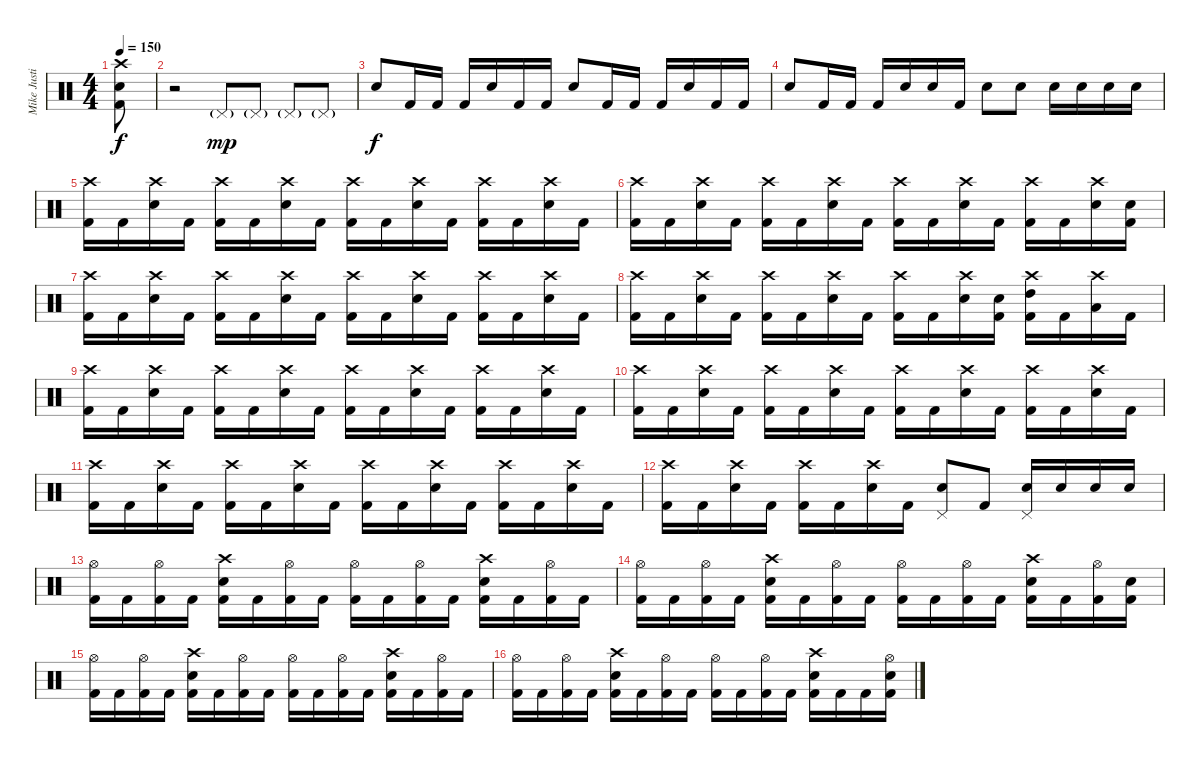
\track ("Mike Justian" "Mike Justi") {instrument percussion}
\staff {score}
\articulation defaults
\ts (4 4)
\tempo 150
\clef neutral
\ks c
("Crash high (hit)" "Electric Snare (hit)" "Kick (hit) 2").8{dy f} |
r.2 "Pedal Hi-Hat (hit)"{g}.8{dy mp} "Pedal Hi-Hat (hit)"{g}.8 "Pedal Hi-Hat (hit)"{g}.8 "Pedal Hi-Hat (hit)"{g}.8 |
"Electric Snare (hit)".8{dy f} "Kick (hit) 2".16 "Kick (hit) 2".16 "Kick (hit) 2".16 "Electric Snare (hit)".16 "Kick (hit) 2".16 "Kick (hit) 2".16 "Electric Snare (hit)".8 "Kick (hit) 2".16 "Kick (hit) 2".16 "Kick (hit) 2".16 "Electric Snare (hit)".16 "Kick (hit) 2".16 "Kick (hit) 2".16 |
"Electric Snare (hit)".8 "Kick (hit) 2".16 "Kick (hit) 2".16 "Kick (hit) 2".16 "Electric Snare (hit)".16 "Electric Snare (hit)".16 "Kick (hit) 2".16 "Electric Snare (hit)".8 "Electric Snare (hit)".8 "Electric Snare (hit)".16 "Electric Snare (hit)".16 "Electric Snare (hit)".16 "Electric Snare (hit)".16 |
("Crash high (hit)" "Kick (hit) 2").16 "Kick (hit) 2".16 ("Crash high (hit)" "Electric Snare (hit)").16 "Kick (hit) 2".16 ("Crash high (hit)" "Kick (hit) 2").16 "Kick (hit) 2".16 ("Crash high (hit)" "Electric Snare (hit)").16 "Kick (hit) 2".16 ("Crash high (hit)" "Kick (hit) 2").16 "Kick (hit) 2".16 ("Crash high (hit)" "Electric Snare (hit)").16 "Kick (hit) 2".16 ("Crash high (hit)" "Kick (hit) 2").16 "Kick (hit) 2".16 ("Crash high (hit)" "Electric Snare (hit)").16 "Kick (hit) 2".16 |
("Crash high (hit)" "Kick (hit) 2").16 "Kick (hit) 2".16 ("Crash high (hit)" "Electric Snare (hit)").16 "Kick (hit) 2".16 ("Crash high (hit)" "Kick (hit) 2").16 "Kick (hit) 2".16 ("Crash high (hit)" "Electric Snare (hit)").16 "Kick (hit) 2".16 ("Crash high (hit)" "Kick (hit) 2").16 "Kick (hit) 2".16 ("Crash high (hit)" "Electric Snare (hit)").16 "Kick (hit) 2".16 ("Crash high (hit)" "Kick (hit) 2").16 "Kick (hit) 2".16 ("Crash high (hit)" "Electric Snare (hit)").16 ("Electric Snare (hit)" "Kick (hit) 2").16 |
("Crash high (hit)" "Kick (hit) 2").16 "Kick (hit) 2".16 ("Crash high (hit)" "Electric Snare (hit)").16 "Kick (hit) 2".16 ("Crash high (hit)" "Kick (hit) 2").16 "Kick (hit) 2".16 ("Crash high (hit)" "Electric Snare (hit)").16 "Kick (hit) 2".16 ("Crash high (hit)" "Kick (hit) 2").16 "Kick (hit) 2".16 ("Crash high (hit)" "Electric Snare (hit)").16 "Kick (hit) 2".16 ("Crash high (hit)" "Kick (hit) 2").16 "Kick (hit) 2".16 ("Crash high (hit)" "Electric Snare (hit)").16 "Kick (hit) 2".16 |
("Crash high (hit)" "Kick (hit) 2").16 "Kick (hit) 2".16 ("Crash high (hit)" "Electric Snare (hit)").16 "Kick (hit) 2".16 ("Crash high (hit)" "Kick (hit) 2").16 "Kick (hit) 2".16 ("Crash high (hit)" "Electric Snare (hit)").16 "Kick (hit) 2".16 ("Crash high (hit)" "Kick (hit) 2").16 "Kick (hit) 2".16 ("Crash high (hit)" "Electric Snare (hit)").16 ("Electric Snare (hit)" "Kick (hit) 2").16 ("Crash high (hit)" "High Tom (hit)" "Kick (hit) 2").16 "Kick (hit) 2".16 ("Crash high (hit)" "Low Tom (hit)").16 "Kick (hit) 2".16 |
("Crash high (hit)" "Kick (hit) 2").16 "Kick (hit) 2".16 ("Crash high (hit)" "Electric Snare (hit)").16 "Kick (hit) 2".16 ("Crash high (hit)" "Kick (hit) 2").16 "Kick (hit) 2".16 ("Crash high (hit)" "Electric Snare (hit)").16 "Kick (hit) 2".16 ("Crash high (hit)" "Kick (hit) 2").16 "Kick (hit) 2".16 ("Crash high (hit)" "Electric Snare (hit)").16 "Kick (hit) 2".16 ("Crash high (hit)" "Kick (hit) 2").16 "Kick (hit) 2".16 ("Crash high (hit)" "Electric Snare (hit)").16 "Kick (hit) 2".16 |
("Crash high (hit)" "Kick (hit) 2").16 "Kick (hit) 2".16 ("Crash high (hit)" "Electric Snare (hit)").16 "Kick (hit) 2".16 ("Crash high (hit)" "Kick (hit) 2").16 "Kick (hit) 2".16 ("Crash high (hit)" "Electric Snare (hit)").16 "Kick (hit) 2".16 ("Crash high (hit)" "Kick (hit) 2").16 "Kick (hit) 2".16 ("Crash high (hit)" "Electric Snare (hit)").16 "Kick (hit) 2".16 ("Crash high (hit)" "Kick (hit) 2").16 "Kick (hit) 2".16 ("Crash high (hit)" "Electric Snare (hit)").16 "Kick (hit) 2".16 |
("Crash high (hit)" "Kick (hit) 2").16 "Kick (hit) 2".16 ("Crash high (hit)" "Electric Snare (hit)").16 "Kick (hit) 2".16 ("Crash high (hit)" "Kick (hit) 2").16 "Kick (hit) 2".16 ("Crash high (hit)" "Electric Snare (hit)").16 "Kick (hit) 2".16 ("Crash high (hit)" "Kick (hit) 2").16 "Kick (hit) 2".16 ("Crash high (hit)" "Electric Snare (hit)").16 "Kick (hit) 2".16 ("Crash high (hit)" "Kick (hit) 2").16 "Kick (hit) 2".16 ("Crash high (hit)" "Electric Snare (hit)").16 "Kick (hit) 2".16 |
("Crash high (hit)" "Kick (hit) 2").16 "Kick (hit) 2".16 ("Crash high (hit)" "Electric Snare (hit)").16 "Kick (hit) 2".16 ("Crash high (hit)" "Kick (hit) 2").16 "Kick (hit) 2".16 ("Crash high (hit)" "Electric Snare (hit)").16 "Kick (hit) 2".16 ("Pedal Hi-Hat (hit)" "Electric Snare (hit)").8 "Kick (hit) 2".8 ("Pedal Hi-Hat (hit)" "Electric Snare (hit)").16 "Electric Snare (hit)".16 "Electric Snare (hit)".16 "Electric Snare (hit)".16 |
("Hi-Hat (open)" "Kick (hit) 2").16 "Kick (hit) 2".16 ("Hi-Hat (open)" "Kick (hit) 2").16 "Kick (hit) 2".16 ("Crash high (hit)" "Electric Snare (hit)" "Kick (hit) 2").16 "Kick (hit) 2".16 ("Hi-Hat (open)" "Kick (hit) 2").16 "Kick (hit) 2".16 ("Hi-Hat (open)" "Kick (hit) 2").16 "Kick (hit) 2".16 ("Hi-Hat (open)" "Kick (hit) 2").16 "Kick (hit) 2".16 ("Crash high (hit)" "Electric Snare (hit)" "Kick (hit) 2").16 "Kick (hit) 2".16 ("Hi-Hat (open)" "Kick (hit) 2").16 "Kick (hit) 2".16 |
("Hi-Hat (open)" "Kick (hit) 2").16 "Kick (hit) 2".16 ("Hi-Hat (open)" "Kick (hit) 2").16 "Kick (hit) 2".16 ("Crash high (hit)" "Electric Snare (hit)" "Kick (hit) 2").16 "Kick (hit) 2".16 ("Hi-Hat (open)" "Kick (hit) 2").16 "Kick (hit) 2".16 ("Hi-Hat (open)" "Kick (hit) 2").16 "Kick (hit) 2".16 ("Hi-Hat (open)" "Kick (hit) 2").16 "Kick (hit) 2".16 ("Crash high (hit)" "Electric Snare (hit)" "Kick (hit) 2").16 "Kick (hit) 2".16 ("Hi-Hat (open)" "Kick (hit) 2").16 ("Electric Snare (hit)" "Kick (hit) 2").16 |
("Hi-Hat (open)" "Kick (hit) 2").16 "Kick (hit) 2".16 ("Hi-Hat (open)" "Kick (hit) 2").16 "Kick (hit) 2".16 ("Crash high (hit)" "Electric Snare (hit)" "Kick (hit) 2").16 "Kick (hit) 2".16 ("Hi-Hat (open)" "Kick (hit) 2").16 "Kick (hit) 2".16 ("Hi-Hat (open)" "Kick (hit) 2").16 "Kick (hit) 2".16 ("Hi-Hat (open)" "Kick (hit) 2").16 "Kick (hit) 2".16 ("Crash high (hit)" "Electric Snare (hit)" "Kick (hit) 2").16 "Kick (hit) 2".16 ("Hi-Hat (open)" "Kick (hit) 2").16 "Kick (hit) 2".16 |
("Hi-Hat (open)" "Kick (hit) 2").16 "Kick (hit) 2".16 ("Hi-Hat (open)" "Kick (hit) 2").16 "Kick (hit) 2".16 ("Crash high (hit)" "Electric Snare (hit)" "Kick (hit) 2").16 "Kick (hit) 2".16 ("Hi-Hat (open)" "Kick (hit) 2").16 "Kick (hit) 2".16 ("Hi-Hat (open)" "Kick (hit) 2").16 "Kick (hit) 2".16 ("Hi-Hat (open)" "Kick (hit) 2").16 "Kick (hit) 2".16 ("Crash high (hit)" "Electric Snare (hit)" "Kick (hit) 2").16 "Kick (hit) 2".16 "Kick (hit) 2".16 ("Hi-Hat (open)" "Electric Snare (hit)" "Kick (hit) 2").16
